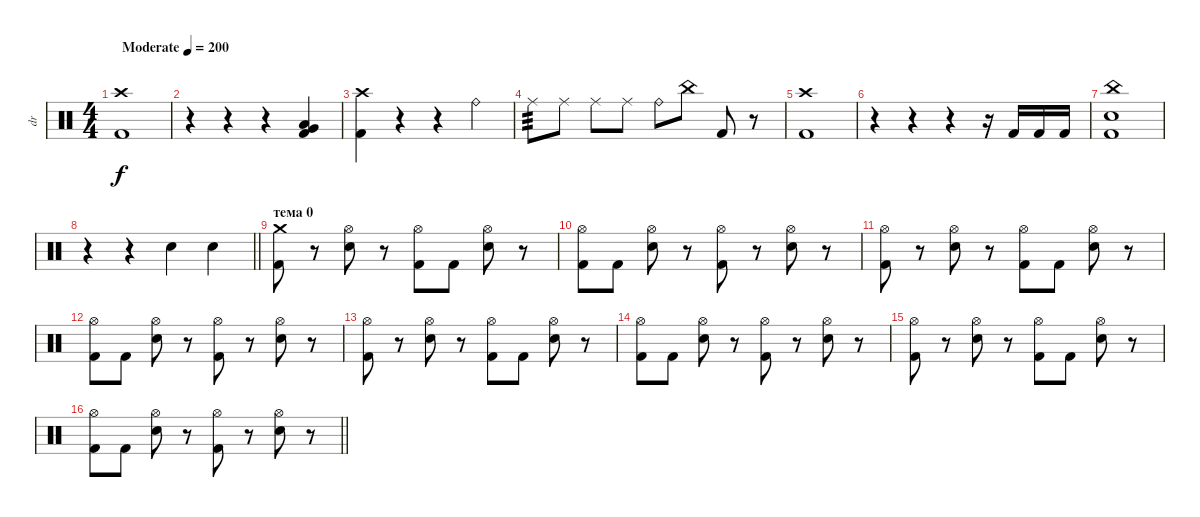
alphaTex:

\track ("dr" "dr") {instrument percussion}
\staff {score}
\articulation defaults
\ts (4 4)
\tempo (200 "Moderate")
\clef neutral
\ks c
("Crash high (hit)" "Kick (hit) 2").1{dy f} |
r.4 r.4 r.4 ("Low Floor Tom (hit)" "Kick (hit) 2" "Very Low Tom (hit)").4 |
("Crash high (hit)" "Kick (hit) 2").4 r.4 r.4 "Ride (bell)".4 |
"Ride (middle)".8{tp 3} "Ride (middle)".8 "Ride (middle)".8 "Ride (middle)".8 "Ride (bell)".8 "China (hit)".8 "Kick (hit) 2".8 r.8 |
("Crash high (hit)" "Kick (hit) 2").1 |
r.4 r.4 r.4 r.16 "Kick (hit) 2".16 "Kick (hit) 2".16 "Kick (hit) 2".16 |
("China (hit)" "Kick (hit) 2" "Electric Snare (hit)").1 |
\barLineRight lightlight
r.4 r.4 "Electric Snare (hit)".4 "Electric Snare (hit)".4 |
\section ("" "тема 0")
("Crash medium (hit)" "Kick (hit) 2").8 r.8 ("Hi-Hat (open)" "Electric Snare (hit)").8 r.8 ("Hi-Hat (open)" "Kick (hit) 2").8 "Kick (hit) 2".8 ("Hi-Hat (open)" "Electric Snare (hit)").8 r.8 |
("Hi-Hat (open)" "Kick (hit) 2").8 "Kick (hit) 2".8 ("Hi-Hat (open)" "Electric Snare (hit)").8 r.8 ("Hi-Hat (open)" "Kick (hit) 2").8 r.8 ("Hi-Hat (open)" "Electric Snare (hit)").8 r.8 |
("Hi-Hat (open)" "Kick (hit) 2").8 r.8 ("Hi-Hat (open)" "Electric Snare (hit)").8 r.8 ("Hi-Hat (open)" "Kick (hit) 2").8 "Kick (hit) 2".8 ("Hi-Hat (open)" "Electric Snare (hit)").8 r.8 |
("Hi-Hat (open)" "Kick (hit) 2").8 "Kick (hit) 2".8 ("Hi-Hat (open)" "Electric Snare (hit)").8 r.8 ("Hi-Hat (open)" "Kick (hit) 2").8 r.8 ("Hi-Hat (open)" "Electric Snare (hit)").8 r.8 |
("Hi-Hat (open)" "Kick (hit) 2").8 r.8 ("Hi-Hat (open)" "Electric Snare (hit)").8 r.8 ("Hi-Hat (open)" "Kick (hit) 2").8 "Kick (hit) 2".8 ("Hi-Hat (open)" "Electric Snare (hit)").8 r.8 |
("Hi-Hat (open)" "Kick (hit) 2").8 "Kick (hit) 2".8 ("Hi-Hat (open)" "Electric Snare (hit)").8 r.8 ("Hi-Hat (open)" "Kick (hit) 2").8 r.8 ("Hi-Hat (open)" "Electric Snare (hit)").8 r.8 |
("Hi-Hat (open)" "Kick (hit) 2").8 r.8 ("Hi-Hat (open)" "Electric Snare (hit)").8 r.8 ("Hi-Hat (open)" "Kick (hit) 2").8 "Kick (hit) 2".8 ("Hi-Hat (open)" "Electric Snare (hit)").8 r.8 |
\barLineRight lightlight
("Hi-Hat (open)" "Kick (hit) 2").8 "Kick (hit) 2".8 ("Hi-Hat (open)" "Electric Snare (hit)").8 r.8 ("Hi-Hat (open)" "Kick (hit) 2").8 r.8 ("Hi-Hat (open)" "Electric Snare (hit)").8 r.8
